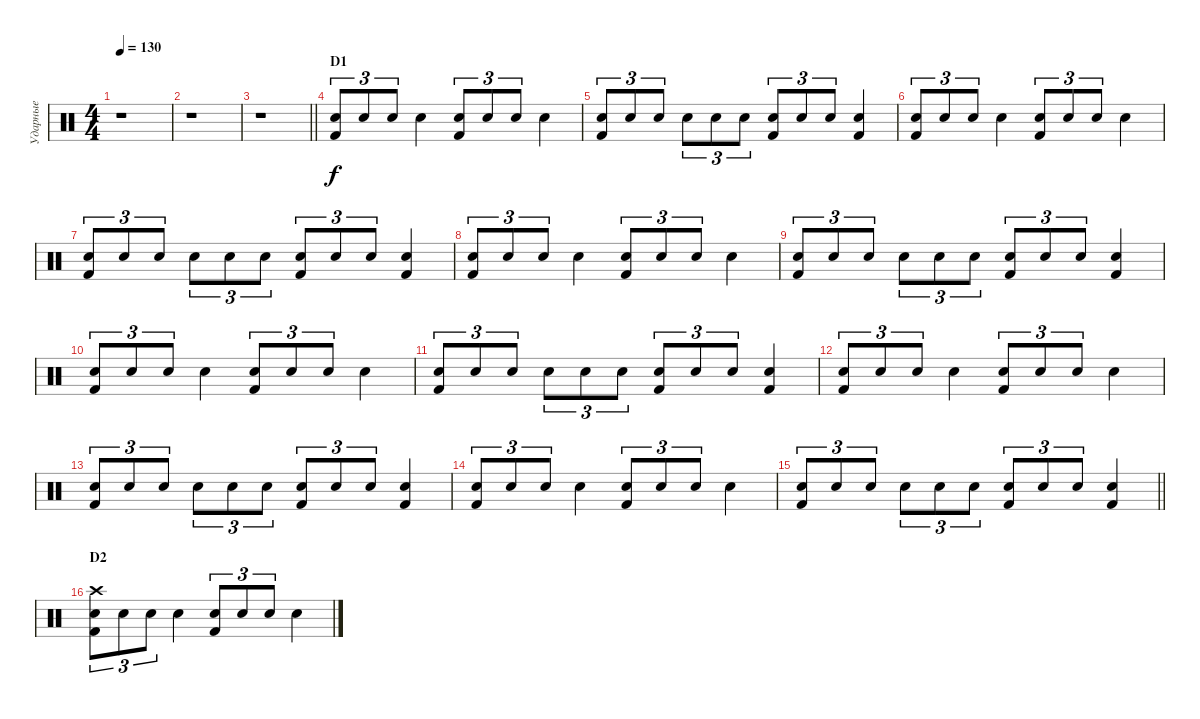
\track ("Ударные" "Ударные") {instrument percussion}
\staff {score}
\articulation defaults
\ts (4 4)
\tempo 130
\clef neutral
\ks c
r.1{dy f} |
r.1 |
\barLineRight lightlight
r.1 |
\section ("" "D1")
("Electric Snare (hit)" "Kick (hit) 2").8{tu (3 2)} "Electric Snare (hit)".8{tu (3 2)} "Electric Snare (hit)".8{tu (3 2)} "Electric Snare (hit)".4 ("Electric Snare (hit)" "Kick (hit) 2").8{tu (3 2)} "Electric Snare (hit)".8{tu (3 2)} "Electric Snare (hit)".8{tu (3 2)} "Electric Snare (hit)".4 |
("Electric Snare (hit)" "Kick (hit) 2").8{tu (3 2)} "Electric Snare (hit)".8{tu (3 2)} "Electric Snare (hit)".8{tu (3 2)} "Electric Snare (hit)".8{tu (3 2)} "Electric Snare (hit)".8{tu (3 2)} "Electric Snare (hit)".8{tu (3 2)} ("Electric Snare (hit)" "Kick (hit) 2").8{tu (3 2)} "Electric Snare (hit)".8{tu (3 2)} "Electric Snare (hit)".8{tu (3 2)} ("Electric Snare (hit)" "Kick (hit) 2").4 |
("Electric Snare (hit)" "Kick (hit) 2").8{tu (3 2)} "Electric Snare (hit)".8{tu (3 2)} "Electric Snare (hit)".8{tu (3 2)} "Electric Snare (hit)".4 ("Electric Snare (hit)" "Kick (hit) 2").8{tu (3 2)} "Electric Snare (hit)".8{tu (3 2)} "Electric Snare (hit)".8{tu (3 2)} "Electric Snare (hit)".4 |
("Electric Snare (hit)" "Kick (hit) 2").8{tu (3 2)} "Electric Snare (hit)".8{tu (3 2)} "Electric Snare (hit)".8{tu (3 2)} "Electric Snare (hit)".8{tu (3 2)} "Electric Snare (hit)".8{tu (3 2)} "Electric Snare (hit)".8{tu (3 2)} ("Electric Snare (hit)" "Kick (hit) 2").8{tu (3 2)} "Electric Snare (hit)".8{tu (3 2)} "Electric Snare (hit)".8{tu (3 2)} ("Electric Snare (hit)" "Kick (hit) 2").4 |
("Electric Snare (hit)" "Kick (hit) 2").8{tu (3 2)} "Electric Snare (hit)".8{tu (3 2)} "Electric Snare (hit)".8{tu (3 2)} "Electric Snare (hit)".4 ("Electric Snare (hit)" "Kick (hit) 2").8{tu (3 2)} "Electric Snare (hit)".8{tu (3 2)} "Electric Snare (hit)".8{tu (3 2)} "Electric Snare (hit)".4 |
("Electric Snare (hit)" "Kick (hit) 2").8{tu (3 2)} "Electric Snare (hit)".8{tu (3 2)} "Electric Snare (hit)".8{tu (3 2)} "Electric Snare (hit)".8{tu (3 2)} "Electric Snare (hit)".8{tu (3 2)} "Electric Snare (hit)".8{tu (3 2)} ("Electric Snare (hit)" "Kick (hit) 2").8{tu (3 2)} "Electric Snare (hit)".8{tu (3 2)} "Electric Snare (hit)".8{tu (3 2)} ("Electric Snare (hit)" "Kick (hit) 2").4 |
("Electric Snare (hit)" "Kick (hit) 2").8{tu (3 2)} "Electric Snare (hit)".8{tu (3 2)} "Electric Snare (hit)".8{tu (3 2)} "Electric Snare (hit)".4 ("Electric Snare (hit)" "Kick (hit) 2").8{tu (3 2)} "Electric Snare (hit)".8{tu (3 2)} "Electric Snare (hit)".8{tu (3 2)} "Electric Snare (hit)".4 |
("Electric Snare (hit)" "Kick (hit) 2").8{tu (3 2)} "Electric Snare (hit)".8{tu (3 2)} "Electric Snare (hit)".8{tu (3 2)} "Electric Snare (hit)".8{tu (3 2)} "Electric Snare (hit)".8{tu (3 2)} "Electric Snare (hit)".8{tu (3 2)} ("Electric Snare (hit)" "Kick (hit) 2").8{tu (3 2)} "Electric Snare (hit)".8{tu (3 2)} "Electric Snare (hit)".8{tu (3 2)} ("Electric Snare (hit)" "Kick (hit) 2").4 |
("Electric Snare (hit)" "Kick (hit) 2").8{tu (3 2)} "Electric Snare (hit)".8{tu (3 2)} "Electric Snare (hit)".8{tu (3 2)} "Electric Snare (hit)".4 ("Electric Snare (hit)" "Kick (hit) 2").8{tu (3 2)} "Electric Snare (hit)".8{tu (3 2)} "Electric Snare (hit)".8{tu (3 2)} "Electric Snare (hit)".4 |
("Electric Snare (hit)" "Kick (hit) 2").8{tu (3 2)} "Electric Snare (hit)".8{tu (3 2)} "Electric Snare (hit)".8{tu (3 2)} "Electric Snare (hit)".8{tu (3 2)} "Electric Snare (hit)".8{tu (3 2)} "Electric Snare (hit)".8{tu (3 2)} ("Electric Snare (hit)" "Kick (hit) 2").8{tu (3 2)} "Electric Snare (hit)".8{tu (3 2)} "Electric Snare (hit)".8{tu (3 2)} ("Electric Snare (hit)" "Kick (hit) 2").4 |
("Electric Snare (hit)" "Kick (hit) 2").8{tu (3 2)} "Electric Snare (hit)".8{tu (3 2)} "Electric Snare (hit)".8{tu (3 2)} "Electric Snare (hit)".4 ("Electric Snare (hit)" "Kick (hit) 2").8{tu (3 2)} "Electric Snare (hit)".8{tu (3 2)} "Electric Snare (hit)".8{tu (3 2)} "Electric Snare (hit)".4 |
\barLineRight lightlight
("Electric Snare (hit)" "Kick (hit) 2").8{tu (3 2)} "Electric Snare (hit)".8{tu (3 2)} "Electric Snare (hit)".8{tu (3 2)} "Electric Snare (hit)".8{tu (3 2)} "Electric Snare (hit)".8{tu (3 2)} "Electric Snare (hit)".8{tu (3 2)} ("Electric Snare (hit)" "Kick (hit) 2").8{tu (3 2)} "Electric Snare (hit)".8{tu (3 2)} "Electric Snare (hit)".8{tu (3 2)} ("Electric Snare (hit)" "Kick (hit) 2").4 |
\section ("" "D2")
("Crash high (hit)" "Electric Snare (hit)" "Kick (hit) 2").8{tu (3 2)} "Electric Snare (hit)".8{tu (3 2)} "Electric Snare (hit)".8{tu (3 2)} "Electric Snare (hit)".4 ("Electric Snare (hit)" "Kick (hit) 2").8{tu (3 2)} "Electric Snare (hit)".8{tu (3 2)} "Electric Snare (hit)".8{tu (3 2)} "Electric Snare (hit)".4
